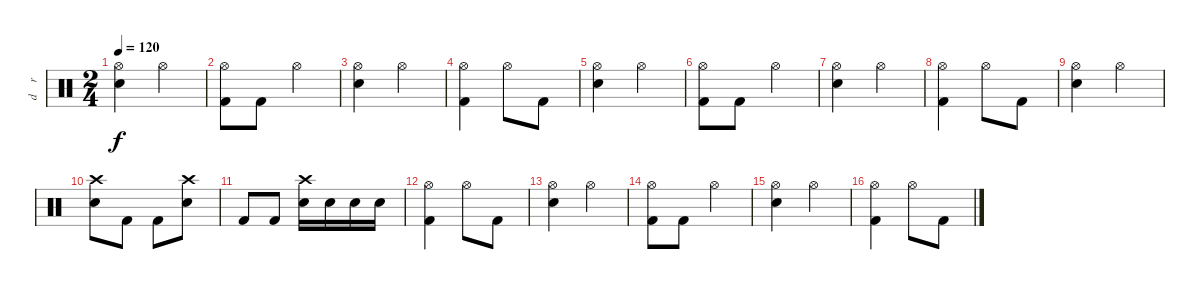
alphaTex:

\track ("d    r    u  m  s" "d    r    ") {instrument percussion}
\staff {score}
\articulation defaults
\ts (2 4)
\tempo 120
\clef neutral
\ks c
("Hi-Hat (open)" "Snare (hit) 2").4{dy f} "Hi-Hat (open)".4 |
("Hi-Hat (open)" "Kick (hit) 2").8 "Kick (hit) 2".8 "Hi-Hat (open)".4 |
("Hi-Hat (open)" "Snare (hit) 2").4 "Hi-Hat (open)".4 |
("Hi-Hat (open)" "Kick (hit) 2").4 "Hi-Hat (open)".8 "Kick (hit) 2".8 |
("Hi-Hat (open)" "Snare (hit) 2").4 "Hi-Hat (open)".4 |
("Hi-Hat (open)" "Kick (hit) 2").8 "Kick (hit) 2".8 "Hi-Hat (open)".4 |
("Hi-Hat (open)" "Snare (hit) 2").4 "Hi-Hat (open)".4 |
("Hi-Hat (open)" "Kick (hit) 2").4 "Hi-Hat (open)".8 "Kick (hit) 2".8 |
("Hi-Hat (open)" "Snare (hit) 2").4 "Hi-Hat (open)".4 |
("Crash high (hit)" "Snare (hit) 2").8 "Kick (hit) 2".8 "Kick (hit) 2".8 ("Crash high (hit)" "Snare (hit) 2").8 |
"Kick (hit) 2".8 "Kick (hit) 2".8 ("Crash high (hit)" "Snare (hit) 2").16 "Snare (hit) 2".16 "Snare (hit) 2".16 "Snare (hit) 2".16 |
("Hi-Hat (open)" "Kick (hit) 2").4 "Hi-Hat (open)".8 "Kick (hit) 2".8 |
("Hi-Hat (open)" "Snare (hit) 2").4 "Hi-Hat (open)".4 |
("Hi-Hat (open)" "Kick (hit) 2").8 "Kick (hit) 2".8 "Hi-Hat (open)".4 |
("Hi-Hat (open)" "Snare (hit) 2").4 "Hi-Hat (open)".4 |
("Hi-Hat (open)" "Kick (hit) 2").4 "Hi-Hat (open)".8 "Kick (hit) 2".8
